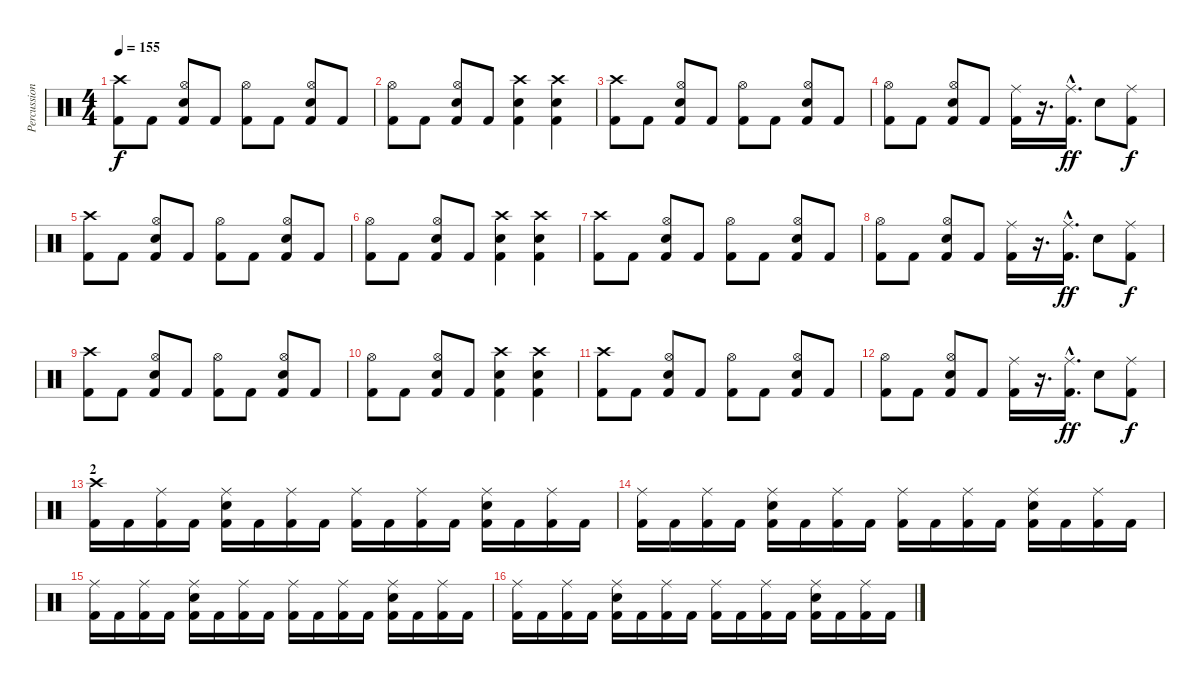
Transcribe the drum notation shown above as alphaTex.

\track ("Percussion" "Percussion") {instrument percussion}
\staff {score}
\articulation defaults
\ts (4 4)
\tempo 155
\clef neutral
\ks c
("Crash high (hit)" "Kick (hit) 2").8{dy f} "Kick (hit) 2".8 ("Hi-Hat (open)" "Snare (hit) 2" "Kick (hit) 2").8 "Kick (hit) 2".8 ("Hi-Hat (open)" "Kick (hit) 2").8 "Kick (hit) 2".8 ("Hi-Hat (open)" "Snare (hit) 2" "Kick (hit) 2").8 "Kick (hit) 2".8 |
("Hi-Hat (open)" "Kick (hit) 2").8 "Kick (hit) 2".8 ("Hi-Hat (open)" "Snare (hit) 2" "Kick (hit) 2").8 "Kick (hit) 2".8 ("Crash high (hit)" "Snare (hit) 2" "Kick (hit) 2").4 ("Crash high (hit)" "Snare (hit) 2" "Kick (hit) 2").4 |
("Crash high (hit)" "Kick (hit) 2").8 "Kick (hit) 2".8 ("Hi-Hat (open)" "Snare (hit) 2" "Kick (hit) 2").8 "Kick (hit) 2".8 ("Hi-Hat (open)" "Kick (hit) 2").8 "Kick (hit) 2".8 ("Hi-Hat (open)" "Snare (hit) 2" "Kick (hit) 2").8 "Kick (hit) 2".8 |
("Hi-Hat (open)" "Kick (hit) 2").8 "Kick (hit) 2".8 ("Hi-Hat (open)" "Snare (hit) 2" "Kick (hit) 2").8 "Kick (hit) 2".8 ("Ride (middle)" "Kick (hit) 2").16 r.16{d} ("Ride (middle)"{hac} "Kick (hit) 2"{hac}).16{d dy ff} "Snare (hit) 2".8 ("Ride (middle)" "Kick (hit) 2").8{dy f} |
("Crash high (hit)" "Kick (hit) 2").8 "Kick (hit) 2".8 ("Hi-Hat (open)" "Snare (hit) 2" "Kick (hit) 2").8 "Kick (hit) 2".8 ("Hi-Hat (open)" "Kick (hit) 2").8 "Kick (hit) 2".8 ("Hi-Hat (open)" "Snare (hit) 2" "Kick (hit) 2").8 "Kick (hit) 2".8 |
("Hi-Hat (open)" "Kick (hit) 2").8 "Kick (hit) 2".8 ("Hi-Hat (open)" "Snare (hit) 2" "Kick (hit) 2").8 "Kick (hit) 2".8 ("Crash high (hit)" "Snare (hit) 2" "Kick (hit) 2").4 ("Crash high (hit)" "Snare (hit) 2" "Kick (hit) 2").4 |
("Crash high (hit)" "Kick (hit) 2").8 "Kick (hit) 2".8 ("Hi-Hat (open)" "Snare (hit) 2" "Kick (hit) 2").8 "Kick (hit) 2".8 ("Hi-Hat (open)" "Kick (hit) 2").8 "Kick (hit) 2".8 ("Hi-Hat (open)" "Snare (hit) 2" "Kick (hit) 2").8 "Kick (hit) 2".8 |
("Hi-Hat (open)" "Kick (hit) 2").8 "Kick (hit) 2".8 ("Hi-Hat (open)" "Snare (hit) 2" "Kick (hit) 2").8 "Kick (hit) 2".8 ("Ride (middle)" "Kick (hit) 2").16 r.16{d} ("Ride (middle)"{hac} "Kick (hit) 2"{hac}).16{d dy ff} "Snare (hit) 2".8 ("Ride (middle)" "Kick (hit) 2").8{dy f} |
("Crash high (hit)" "Kick (hit) 2").8 "Kick (hit) 2".8 ("Hi-Hat (open)" "Snare (hit) 2" "Kick (hit) 2").8 "Kick (hit) 2".8 ("Hi-Hat (open)" "Kick (hit) 2").8 "Kick (hit) 2".8 ("Hi-Hat (open)" "Snare (hit) 2" "Kick (hit) 2").8 "Kick (hit) 2".8 |
("Hi-Hat (open)" "Kick (hit) 2").8 "Kick (hit) 2".8 ("Hi-Hat (open)" "Snare (hit) 2" "Kick (hit) 2").8 "Kick (hit) 2".8 ("Crash high (hit)" "Snare (hit) 2" "Kick (hit) 2").4 ("Crash high (hit)" "Snare (hit) 2" "Kick (hit) 2").4 |
("Crash high (hit)" "Kick (hit) 2").8 "Kick (hit) 2".8 ("Hi-Hat (open)" "Snare (hit) 2" "Kick (hit) 2").8 "Kick (hit) 2".8 ("Hi-Hat (open)" "Kick (hit) 2").8 "Kick (hit) 2".8 ("Hi-Hat (open)" "Snare (hit) 2" "Kick (hit) 2").8 "Kick (hit) 2".8 |
("Hi-Hat (open)" "Kick (hit) 2").8 "Kick (hit) 2".8 ("Hi-Hat (open)" "Snare (hit) 2" "Kick (hit) 2").8 "Kick (hit) 2".8 ("Ride (middle)" "Kick (hit) 2").16 r.16{d} ("Ride (middle)"{hac} "Kick (hit) 2"{hac}).16{d dy ff} "Snare (hit) 2".8 ("Ride (middle)" "Kick (hit) 2").8{dy f} |
\section ("" "2")
("Crash high (hit)" "Kick (hit) 2").16 "Kick (hit) 2".16 ("Ride (middle)" "Kick (hit) 2").16 "Kick (hit) 2".16 ("Ride (middle)" "Snare (hit) 2" "Kick (hit) 2").16 "Kick (hit) 2".16 ("Ride (middle)" "Kick (hit) 2").16 "Kick (hit) 2".16 ("Ride (middle)" "Kick (hit) 2").16 "Kick (hit) 2".16 ("Ride (middle)" "Kick (hit) 2").16 "Kick (hit) 2".16 ("Ride (middle)" "Snare (hit) 2" "Kick (hit) 2").16 "Kick (hit) 2".16 ("Ride (middle)" "Kick (hit) 2").16 "Kick (hit) 2".16 |
("Ride (middle)" "Kick (hit) 2").16 "Kick (hit) 2".16 ("Ride (middle)" "Kick (hit) 2").16 "Kick (hit) 2".16 ("Ride (middle)" "Snare (hit) 2" "Kick (hit) 2").16 "Kick (hit) 2".16 ("Ride (middle)" "Kick (hit) 2").16 "Kick (hit) 2".16 ("Ride (middle)" "Kick (hit) 2").16 "Kick (hit) 2".16 ("Ride (middle)" "Kick (hit) 2").16 "Kick (hit) 2".16 ("Ride (middle)" "Snare (hit) 2" "Kick (hit) 2").16 "Kick (hit) 2".16 ("Ride (middle)" "Kick (hit) 2").16 "Kick (hit) 2".16 |
("Ride (middle)" "Kick (hit) 2").16 "Kick (hit) 2".16 ("Ride (middle)" "Kick (hit) 2").16 "Kick (hit) 2".16 ("Ride (middle)" "Snare (hit) 2" "Kick (hit) 2").16 "Kick (hit) 2".16 ("Ride (middle)" "Kick (hit) 2").16 "Kick (hit) 2".16 ("Ride (middle)" "Kick (hit) 2").16 "Kick (hit) 2".16 ("Ride (middle)" "Kick (hit) 2").16 "Kick (hit) 2".16 ("Ride (middle)" "Snare (hit) 2" "Kick (hit) 2").16 "Kick (hit) 2".16 ("Ride (middle)" "Kick (hit) 2").16 "Kick (hit) 2".16 |
("Ride (middle)" "Kick (hit) 2").16 "Kick (hit) 2".16 ("Ride (middle)" "Kick (hit) 2").16 "Kick (hit) 2".16 ("Ride (middle)" "Snare (hit) 2" "Kick (hit) 2").16 "Kick (hit) 2".16 ("Ride (middle)" "Kick (hit) 2").16 "Kick (hit) 2".16 ("Ride (middle)" "Kick (hit) 2").16 "Kick (hit) 2".16 ("Ride (middle)" "Kick (hit) 2").16 "Kick (hit) 2".16 ("Ride (middle)" "Snare (hit) 2" "Kick (hit) 2").16 "Kick (hit) 2".16 ("Ride (middle)" "Kick (hit) 2").16 "Kick (hit) 2".16
